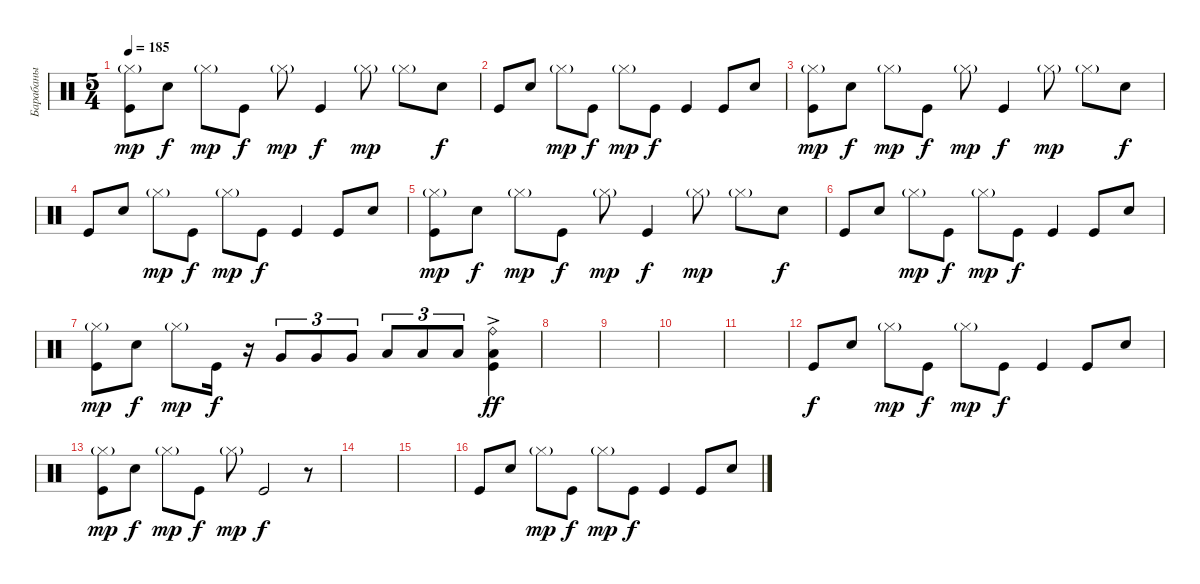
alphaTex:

\track ("Барабаны" "Барабаны") {instrument percussion}
\staff {score}
\articulation defaults
\ts (5 4)
\tempo 185
\clef neutral
\ks c
("Hi-Hat (closed)"{g} "Kick (hit)").8{dy mp} "Electric Snare (hit)".8{dy f} "Hi-Hat (closed)"{g}.8{dy mp} "Kick (hit)".8{dy f} "Hi-Hat (closed)"{g}.8{dy mp} "Kick (hit)".4{dy f} "Hi-Hat (closed)"{g}.8{dy mp} "Hi-Hat (closed)"{g}.8 "Electric Snare (hit)".8{dy f} |
"Kick (hit)".8 "Electric Snare (hit)".8 "Hi-Hat (closed)"{g}.8{dy mp} "Kick (hit)".8{dy f} "Hi-Hat (closed)"{g}.8{dy mp} "Kick (hit)".8{dy f} "Kick (hit)".4 "Kick (hit)".8 "Electric Snare (hit)".8 |
("Hi-Hat (closed)"{g} "Kick (hit)").8{dy mp} "Electric Snare (hit)".8{dy f} "Hi-Hat (closed)"{g}.8{dy mp} "Kick (hit)".8{dy f} "Hi-Hat (closed)"{g}.8{dy mp} "Kick (hit)".4{dy f} "Hi-Hat (closed)"{g}.8{dy mp} "Hi-Hat (closed)"{g}.8 "Electric Snare (hit)".8{dy f} |
"Kick (hit)".8 "Electric Snare (hit)".8 "Hi-Hat (closed)"{g}.8{dy mp} "Kick (hit)".8{dy f} "Hi-Hat (closed)"{g}.8{dy mp} "Kick (hit)".8{dy f} "Kick (hit)".4 "Kick (hit)".8 "Electric Snare (hit)".8 |
("Hi-Hat (closed)"{g} "Kick (hit)").8{dy mp} "Electric Snare (hit)".8{dy f} "Hi-Hat (closed)"{g}.8{dy mp} "Kick (hit)".8{dy f} "Hi-Hat (closed)"{g}.8{dy mp} "Kick (hit)".4{dy f} "Hi-Hat (closed)"{g}.8{dy mp} "Hi-Hat (closed)"{g}.8 "Electric Snare (hit)".8{dy f} |
"Kick (hit)".8 "Electric Snare (hit)".8 "Hi-Hat (closed)"{g}.8{dy mp} "Kick (hit)".8{dy f} "Hi-Hat (closed)"{g}.8{dy mp} "Kick (hit)".8{dy f} "Kick (hit)".4 "Kick (hit)".8 "Electric Snare (hit)".8 |
("Hi-Hat (closed)"{g} "Kick (hit)").8{dy mp} "Electric Snare (hit)".8{dy f} "Hi-Hat (closed)"{g}.8{dy mp} "Kick (hit)".16{dy f} r.16 "Very Low Tom (hit)".8{tu (3 2)} "Very Low Tom (hit)".8{tu (3 2)} "Very Low Tom (hit)".8{tu (3 2)} "Low Floor Tom (hit)".8{tu (3 2)} "Low Floor Tom (hit)".8{tu (3 2)} "Low Floor Tom (hit)".8{tu (3 2)} ("Ride (bell)"{ac} "Low Floor Tom (hit)" "Kick (hit)"{ac}).4{dy ff} |
|
|
|
|
"Kick (hit)".8{dy f} "Electric Snare (hit)".8 "Hi-Hat (closed)"{g}.8{dy mp} "Kick (hit)".8{dy f} "Hi-Hat (closed)"{g}.8{dy mp} "Kick (hit)".8{dy f} "Kick (hit)".4 "Kick (hit)".8 "Electric Snare (hit)".8 |
("Hi-Hat (closed)"{g} "Kick (hit)").8{dy mp} "Electric Snare (hit)".8{dy f} "Hi-Hat (closed)"{g}.8{dy mp} "Kick (hit)".8{dy f} "Hi-Hat (closed)"{g}.8{dy mp} "Kick (hit)".2{dy f} r.8 |
|
|
"Kick (hit)".8 "Electric Snare (hit)".8 "Hi-Hat (closed)"{g}.8{dy mp} "Kick (hit)".8{dy f} "Hi-Hat (closed)"{g}.8{dy mp} "Kick (hit)".8{dy f} "Kick (hit)".4 "Kick (hit)".8 "Electric Snare (hit)".8
